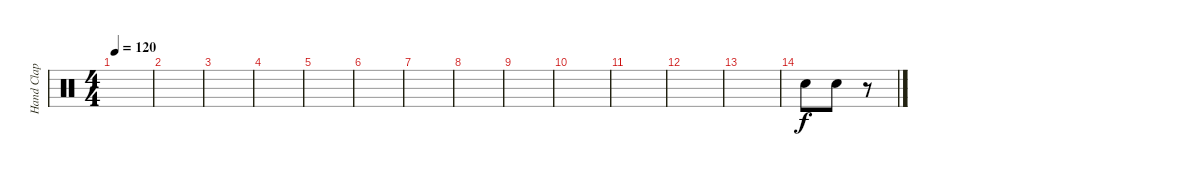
\track ("Hand Clap" "Hand Clap") {instrument percussion}
\staff {score}
\articulation defaults
\ts (4 4)
\tempo 120
\clef neutral
\ks c
|
|
|
|
|
|
|
|
|
|
|
|
|
"Hand Clap (hit)".8 "Hand Clap (hit)".8 r.8
